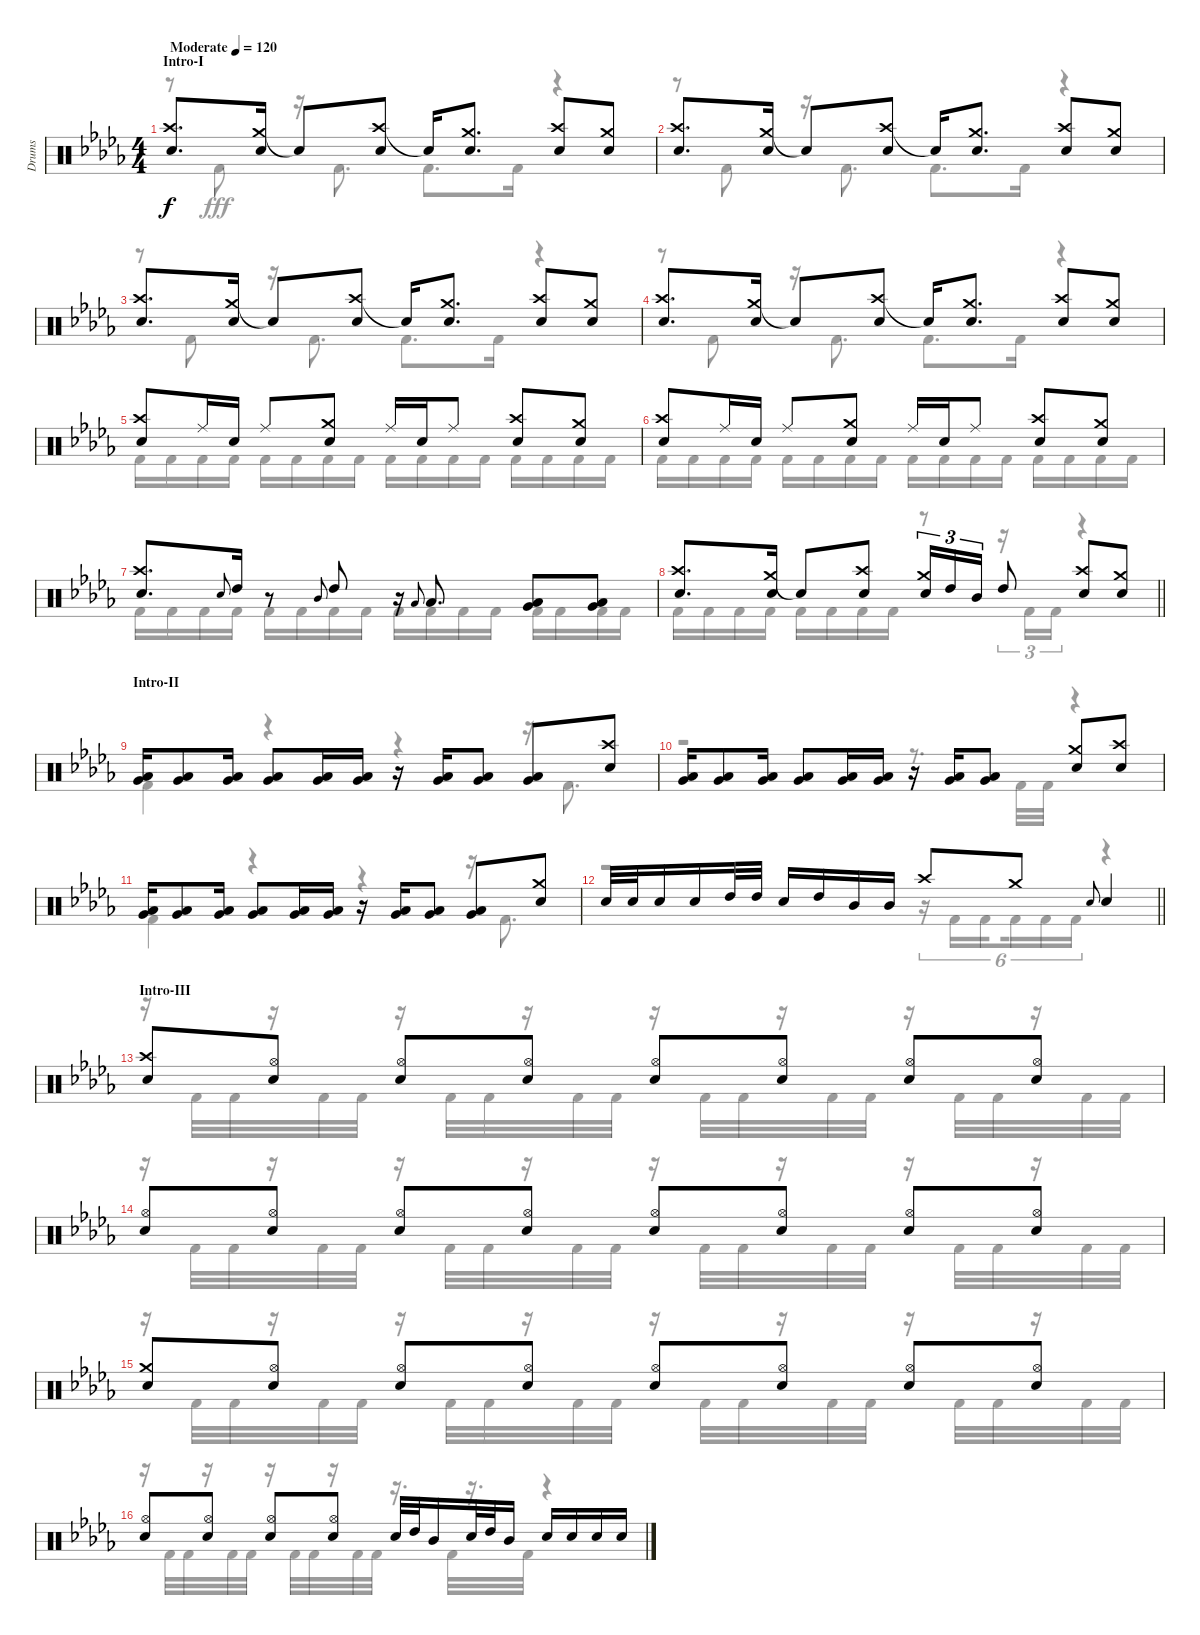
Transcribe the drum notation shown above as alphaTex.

\track ("Drums" "Drums") {instrument percussion}
\staff {score}
\articulation defaults
\voice
\ts (4 4)
\section ("" "Intro-I")
\tempo (120 "Moderate")
\clef neutral
\ks db
("Crash high (hit)" "Snare (hit) 2").8{d dy f} ("Crash medium (hit)" "Snare (hit) 2").16 "Snare (hit)"{t}.8 ("Crash high (hit)" "Snare (hit) 2").8 "Snare (hit)"{t}.16 ("Crash medium (hit)" "Snare (hit) 2").8{d} ("Crash high (hit)" "Snare (hit) 2").8 ("Crash medium (hit)" "Snare (hit) 2").8 |
("Crash high (hit)" "Snare (hit) 2").8{d} ("Crash medium (hit)" "Snare (hit) 2").16 "Snare (hit)"{t}.8 ("Crash high (hit)" "Snare (hit) 2").8 "Snare (hit)"{t}.16 ("Crash medium (hit)" "Snare (hit) 2").8{d} ("Crash high (hit)" "Snare (hit) 2").8 ("Crash medium (hit)" "Snare (hit) 2").8 |
("Crash high (hit)" "Snare (hit) 2").8{d} ("Crash medium (hit)" "Snare (hit) 2").16 "Snare (hit)"{t}.8 ("Crash high (hit)" "Snare (hit) 2").8 "Snare (hit)"{t}.16 ("Crash medium (hit)" "Snare (hit) 2").8{d} ("Crash high (hit)" "Snare (hit) 2").8 ("Crash medium (hit)" "Snare (hit) 2").8 |
("Crash high (hit)" "Snare (hit) 2").8{d} ("Crash medium (hit)" "Snare (hit) 2").16 "Snare (hit)"{t}.8 ("Crash high (hit)" "Snare (hit) 2").8 "Snare (hit)"{t}.16 ("Crash medium (hit)" "Snare (hit) 2").8{d} ("Crash high (hit)" "Snare (hit) 2").8 ("Crash medium (hit)" "Snare (hit) 2").8 |
("Crash high (hit)" "Snare (hit) 2").8 "Ride (middle)".16 "Snare (hit) 2".16 "Ride (middle)".8 ("Crash medium (hit)" "Snare (hit) 2").8 "Ride (middle)".16 "Snare (hit) 2".16 "Ride (middle)".8 ("Crash high (hit)" "Snare (hit) 2").8 ("Crash medium (hit)" "Snare (hit) 2").8 |
("Crash high (hit)" "Snare (hit) 2").8 "Ride (middle)".16 "Snare (hit) 2".16 "Ride (middle)".8 ("Crash medium (hit)" "Snare (hit) 2").8 "Ride (middle)".16 "Snare (hit) 2".16 "Ride (middle)".8 ("Crash high (hit)" "Snare (hit) 2").8 ("Crash medium (hit)" "Snare (hit) 2").8 |
("Crash high (hit)" "Snare (hit) 2").8{d} "Snare (hit) 2".8{gr onbeat} "High Tom (hit)".16 r.8 "Mid Tom (hit)".8{gr onbeat} "High Tom (hit)".8 r.16 "Low Tom (hit)".8{gr onbeat} "Low Tom (hit)".8{d} ("Low Tom (hit)" "Very Low Tom (hit)").8 ("Low Tom (hit)" "Very Low Tom (hit)").8 |
\barLineRight lightlight
("Crash high (hit)" "Snare (hit) 2").8{d} ("Crash medium (hit)" "Snare (hit) 2").16 "Snare (hit)"{t}.8 ("Crash high (hit)" "Snare (hit) 2").8 ("Crash medium (hit)" "Snare (hit) 2").16{tu (3 2)} "High Tom (hit)".16{tu (3 2)} "Mid Tom (hit)".16{tu (3 2)} "High Tom (hit)".8 ("Crash high (hit)" "Snare (hit) 2").8 ("Crash medium (hit)" "Snare (hit) 2").8 |
\section ("" "Intro-II")
("Low Tom (hit)" "Very Low Tom (hit)").16 ("Low Tom (hit)" "Very Low Tom (hit)").8 ("Low Tom (hit)" "Very Low Tom (hit)").16 ("Low Tom (hit)" "Very Low Tom (hit)").8 ("Low Tom (hit)" "Very Low Tom (hit)").16 ("Low Tom (hit)" "Very Low Tom (hit)").16 r.16 ("Low Tom (hit)" "Very Low Tom (hit)").16 ("Low Tom (hit)" "Very Low Tom (hit)").8 ("Low Tom (hit)" "Very Low Tom (hit)").8 ("Crash high (hit)" "Snare (hit) 2").8 |
("Low Tom (hit)" "Very Low Tom (hit)").16 ("Low Tom (hit)" "Very Low Tom (hit)").8 ("Low Tom (hit)" "Very Low Tom (hit)").16 ("Low Tom (hit)" "Very Low Tom (hit)").8 ("Low Tom (hit)" "Very Low Tom (hit)").16 ("Low Tom (hit)" "Very Low Tom (hit)").16 r.16 ("Low Tom (hit)" "Very Low Tom (hit)").16 ("Low Tom (hit)" "Very Low Tom (hit)").8 ("Crash medium (hit)" "Snare (hit) 2").8 ("Crash high (hit)" "Snare (hit) 2").8 |
("Low Tom (hit)" "Very Low Tom (hit)").16 ("Low Tom (hit)" "Very Low Tom (hit)").8 ("Low Tom (hit)" "Very Low Tom (hit)").16 ("Low Tom (hit)" "Very Low Tom (hit)").8 ("Low Tom (hit)" "Very Low Tom (hit)").16 ("Low Tom (hit)" "Very Low Tom (hit)").16 r.16 ("Low Tom (hit)" "Very Low Tom (hit)").16 ("Low Tom (hit)" "Very Low Tom (hit)").8 ("Low Tom (hit)" "Very Low Tom (hit)").8 ("Crash medium (hit)" "Snare (hit) 2").8 |
\barLineRight lightlight "Snare (hit) 2".32 "Snare (hit) 2".32 "Snare (hit) 2".16 "Snare (hit) 2".16 "High Tom (hit)".32 "High Tom (hit)".32 "Snare (hit)".16 "High Tom (hit)".16 "Mid Tom (hit)".16 "Mid Tom (hit)".16 "Crash high (hit)".8 "Crash medium (hit)".8 "Snare (hit) 2".8{gr onbeat} "Snare (hit) 2".4
|
\section ("" "Intro-III")
("Crash high (hit)" "Snare (hit) 2").8 ("Hi-Hat (open)" "Snare (hit) 2").8 ("Hi-Hat (open)" "Snare (hit) 2").8 ("Hi-Hat (open)" "Snare (hit) 2").8 ("Hi-Hat (open)" "Snare (hit) 2").8 ("Hi-Hat (open)" "Snare (hit) 2").8 ("Hi-Hat (open)" "Snare (hit) 2").8 ("Hi-Hat (open)" "Snare (hit) 2").8 |
("Hi-Hat (open)" "Snare (hit) 2").8 ("Hi-Hat (open)" "Snare (hit) 2").8 ("Hi-Hat (open)" "Snare (hit) 2").8 ("Hi-Hat (open)" "Snare (hit) 2").8 ("Hi-Hat (open)" "Snare (hit) 2").8 ("Hi-Hat (open)" "Snare (hit) 2").8 ("Hi-Hat (open)" "Snare (hit) 2").8 ("Hi-Hat (open)" "Snare (hit) 2").8 |
("Crash medium (hit)" "Snare (hit) 2").8 ("Hi-Hat (open)" "Snare (hit) 2").8 ("Hi-Hat (open)" "Snare (hit) 2").8 ("Hi-Hat (open)" "Snare (hit) 2").8 ("Hi-Hat (open)" "Snare (hit) 2").8 ("Hi-Hat (open)" "Snare (hit) 2").8 ("Hi-Hat (open)" "Snare (hit) 2").8 ("Hi-Hat (open)" "Snare (hit) 2").8 |
("Hi-Hat (open)" "Snare (hit) 2").8 ("Hi-Hat (open)" "Snare (hit) 2").8 ("Hi-Hat (open)" "Snare (hit) 2").8 ("Hi-Hat (open)" "Snare (hit) 2").8 "Snare (hit) 2".32 "High Tom (hit)".32 "Mid Tom (hit)".16 "Snare (hit) 2".32 "High Tom (hit)".32 "Mid Tom (hit)".16 "Snare (hit) 2".16 "Snare (hit) 2".16 "Snare (hit) 2".16 "Snare (hit) 2".16
\voice
\clef neutral
\ottava regular
\simile none
\ks db
r.8{dy fff} "Kick (hit) 2".8 r.16 "Kick (hit) 2".8{d} "Kick (hit) 2".8{d} "Kick (hit) 2".16 r.4 |
r.8 "Kick (hit) 2".8 r.16 "Kick (hit) 2".8{d} "Kick (hit) 2".8{d} "Kick (hit) 2".16 r.4 |
r.8 "Kick (hit) 2".8 r.16 "Kick (hit) 2".8{d} "Kick (hit) 2".8{d} "Kick (hit) 2".16 r.4 |
r.8 "Kick (hit) 2".8 r.16 "Kick (hit) 2".8{d} "Kick (hit) 2".8{d} "Kick (hit) 2".16 r.4 |
"Kick (hit) 2".16 "Kick (hit) 2".16 "Kick (hit) 2".16 "Kick (hit) 2".16 "Kick (hit) 2".16 "Kick (hit) 2".16 "Kick (hit) 2".16 "Kick (hit) 2".16 "Kick (hit) 2".16 "Kick (hit) 2".16 "Kick (hit) 2".16 "Kick (hit) 2".16 "Kick (hit) 2".16 "Kick (hit) 2".16 "Kick (hit) 2".16 "Kick (hit) 2".16 |
"Kick (hit) 2".16 "Kick (hit) 2".16 "Kick (hit) 2".16 "Kick (hit) 2".16 "Kick (hit) 2".16 "Kick (hit) 2".16 "Kick (hit) 2".16 "Kick (hit) 2".16 "Kick (hit) 2".16 "Kick (hit) 2".16 "Kick (hit) 2".16 "Kick (hit) 2".16 "Kick (hit) 2".16 "Kick (hit) 2".16 "Kick (hit) 2".16 "Kick (hit) 2".16 |
"Kick (hit) 2".16 "Kick (hit) 2".16 "Kick (hit) 2".16 "Kick (hit) 2".16 "Kick (hit) 2".16 "Kick (hit) 2".16 "Kick (hit) 2".16 "Kick (hit) 2".16 "Kick (hit) 2".16 "Kick (hit) 2".16 "Kick (hit) 2".16 "Kick (hit) 2".16 "Kick (hit) 2".16 "Kick (hit) 2".16 "Kick (hit) 2".16 "Kick (hit) 2".16 |
\barLineRight lightlight "Kick (hit) 2".16 "Kick (hit) 2".16 "Kick (hit) 2".16 "Kick (hit) 2".16 "Kick (hit) 2".16 "Kick (hit) 2".16 "Kick (hit) 2".16 "Kick (hit) 2".16
r.8 r.16{tu (3 2)} "Kick (hit) 2".16{tu (3 2)} "Kick (hit) 2".16{tu (3 2)} r.4 |
"Kick (hit) 2".4 r.4 r.4 r.16 "Kick (hit) 2".8{d} |
r.2 r.8{d} "Kick (hit) 2".32 "Kick (hit) 2".32 r.4 |
"Kick (hit) 2".4 r.4 r.4 r.16 "Kick (hit) 2".8{d} |
\barLineRight lightlight
r.2 r.16{tu (6 4)} "Kick (hit) 2".16{tu (6 4)} "Kick (hit) 2".16{tu (6 4) beam splitsecondary} "Kick (hit) 2".16{tu (6 4)} "Kick (hit) 2".16{tu (6 4)} "Kick (hit) 2".16{tu (6 4)} r.4 |
r.16 "Kick (hit) 2".32 "Kick (hit) 2".32 r.16 "Kick (hit) 2".32 "Kick (hit) 2".32 r.16 "Kick (hit) 2".32 "Kick (hit) 2".32 r.16 "Kick (hit) 2".32 "Kick (hit) 2".32 r.16 "Kick (hit) 2".32 "Kick (hit) 2".32 r.16 "Kick (hit) 2".32 "Kick (hit) 2".32 r.16 "Kick (hit) 2".32 "Kick (hit) 2".32 r.16 "Kick (hit) 2".32 "Kick (hit) 2".32 |
r.16 "Kick (hit) 2".32 "Kick (hit) 2".32 r.16 "Kick (hit) 2".32 "Kick (hit) 2".32 r.16 "Kick (hit) 2".32 "Kick (hit) 2".32 r.16 "Kick (hit) 2".32 "Kick (hit) 2".32 r.16 "Kick (hit) 2".32 "Kick (hit) 2".32 r.16 "Kick (hit) 2".32 "Kick (hit) 2".32 r.16 "Kick (hit) 2".32 "Kick (hit) 2".32 r.16 "Kick (hit) 2".32 "Kick (hit) 2".32 |
r.16 "Kick (hit) 2".32 "Kick (hit) 2".32 r.16 "Kick (hit) 2".32 "Kick (hit) 2".32 r.16 "Kick (hit) 2".32 "Kick (hit) 2".32 r.16 "Kick (hit) 2".32 "Kick (hit) 2".32 r.16 "Kick (hit) 2".32 "Kick (hit) 2".32 r.16 "Kick (hit) 2".32 "Kick (hit) 2".32 r.16 "Kick (hit) 2".32 "Kick (hit) 2".32 r.16 "Kick (hit) 2".32 "Kick (hit) 2".32 |
r.16 "Kick (hit) 2".32 "Kick (hit) 2".32 r.16 "Kick (hit) 2".32 "Kick (hit) 2".32 r.16 "Kick (hit) 2".32 "Kick (hit) 2".32 r.16 "Kick (hit) 2".32 "Kick (hit) 2".32 r.16{d} "Kick (hit) 2".32 r.16{d} "Kick (hit) 2".32 r.4
